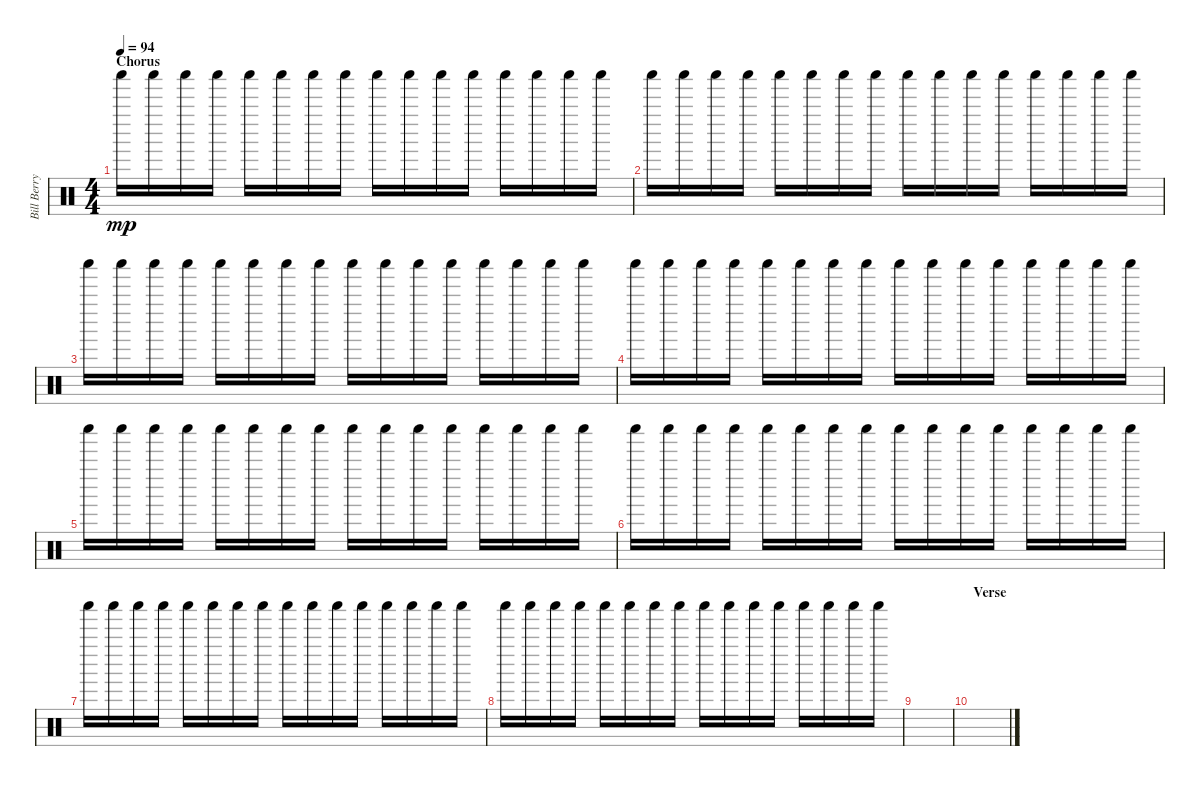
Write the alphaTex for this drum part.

\track ("Bill Berry (Percussion)" "Bill Berry") {instrument percussion}
\staff {score}
\articulation defaults
\ts (4 4)
\section ("" "Chorus")
\tempo 94
\clef neutral
\ks c "Shaker (hit)".16{dy mp} "Shaker (hit)".16 "Shaker (hit)".16 "Shaker (hit)".16 "Shaker (hit)".16 "Shaker (hit)".16 "Shaker (hit)".16 "Shaker (hit)".16 "Shaker (hit)".16 "Shaker (hit)".16 "Shaker (hit)".16 "Shaker (hit)".16 "Shaker (hit)".16 "Shaker (hit)".16 "Shaker (hit)".16 "Shaker (hit)".16
|
"Shaker (hit)".16 "Shaker (hit)".16 "Shaker (hit)".16 "Shaker (hit)".16 "Shaker (hit)".16 "Shaker (hit)".16 "Shaker (hit)".16 "Shaker (hit)".16 "Shaker (hit)".16 "Shaker (hit)".16 "Shaker (hit)".16 "Shaker (hit)".16 "Shaker (hit)".16 "Shaker (hit)".16 "Shaker (hit)".16 "Shaker (hit)".16 |
"Shaker (hit)".16 "Shaker (hit)".16 "Shaker (hit)".16 "Shaker (hit)".16 "Shaker (hit)".16 "Shaker (hit)".16 "Shaker (hit)".16 "Shaker (hit)".16 "Shaker (hit)".16 "Shaker (hit)".16 "Shaker (hit)".16 "Shaker (hit)".16 "Shaker (hit)".16 "Shaker (hit)".16 "Shaker (hit)".16 "Shaker (hit)".16 |
"Shaker (hit)".16 "Shaker (hit)".16 "Shaker (hit)".16 "Shaker (hit)".16 "Shaker (hit)".16 "Shaker (hit)".16 "Shaker (hit)".16 "Shaker (hit)".16 "Shaker (hit)".16 "Shaker (hit)".16 "Shaker (hit)".16 "Shaker (hit)".16 "Shaker (hit)".16 "Shaker (hit)".16 "Shaker (hit)".16 "Shaker (hit)".16 |
"Shaker (hit)".16 "Shaker (hit)".16 "Shaker (hit)".16 "Shaker (hit)".16 "Shaker (hit)".16 "Shaker (hit)".16 "Shaker (hit)".16 "Shaker (hit)".16 "Shaker (hit)".16 "Shaker (hit)".16 "Shaker (hit)".16 "Shaker (hit)".16 "Shaker (hit)".16 "Shaker (hit)".16 "Shaker (hit)".16 "Shaker (hit)".16 |
"Shaker (hit)".16 "Shaker (hit)".16 "Shaker (hit)".16 "Shaker (hit)".16 "Shaker (hit)".16 "Shaker (hit)".16 "Shaker (hit)".16 "Shaker (hit)".16 "Shaker (hit)".16 "Shaker (hit)".16 "Shaker (hit)".16 "Shaker (hit)".16 "Shaker (hit)".16 "Shaker (hit)".16 "Shaker (hit)".16 "Shaker (hit)".16 |
"Shaker (hit)".16 "Shaker (hit)".16 "Shaker (hit)".16 "Shaker (hit)".16 "Shaker (hit)".16 "Shaker (hit)".16 "Shaker (hit)".16 "Shaker (hit)".16 "Shaker (hit)".16 "Shaker (hit)".16 "Shaker (hit)".16 "Shaker (hit)".16 "Shaker (hit)".16 "Shaker (hit)".16 "Shaker (hit)".16 "Shaker (hit)".16 |
"Shaker (hit)".16 "Shaker (hit)".16 "Shaker (hit)".16 "Shaker (hit)".16 "Shaker (hit)".16 "Shaker (hit)".16 "Shaker (hit)".16 "Shaker (hit)".16 "Shaker (hit)".16 "Shaker (hit)".16 "Shaker (hit)".16 "Shaker (hit)".16 "Shaker (hit)".16 "Shaker (hit)".16 "Shaker (hit)".16 "Shaker (hit)".16 |
|
\section ("" "Verse")
